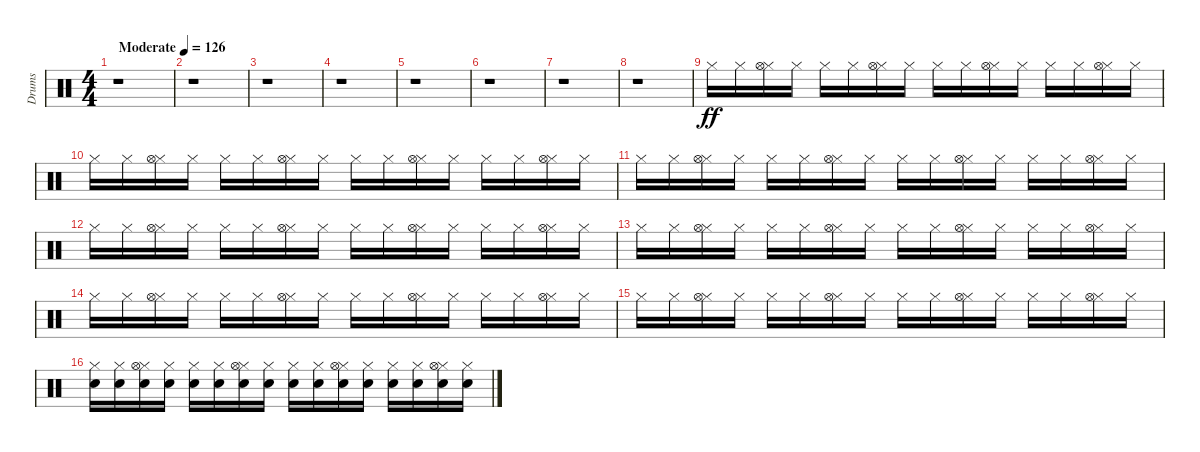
\track ("Drums" "Drums") {instrument percussion}
\staff {score}
\articulation defaults
\ts (4 4)
\tempo (126 "Moderate")
\clef neutral
\ks c
r.1{dy ff} |
r.1 |
r.1 |
r.1 |
r.1 |
r.1 |
r.1 |
r.1 |
"Hi-Hat (closed)".16 "Hi-Hat (closed)".16 ("Hi-Hat (closed)" "Hi-Hat (open)").16 "Hi-Hat (closed)".16 "Hi-Hat (closed)".16 "Hi-Hat (closed)".16 ("Hi-Hat (closed)" "Hi-Hat (open)").16 "Hi-Hat (closed)".16 "Hi-Hat (closed)".16 "Hi-Hat (closed)".16 ("Hi-Hat (closed)" "Hi-Hat (open)").16 "Hi-Hat (closed)".16 "Hi-Hat (closed)".16 "Hi-Hat (closed)".16 ("Hi-Hat (closed)" "Hi-Hat (open)").16 "Hi-Hat (closed)".16 |
"Hi-Hat (closed)".16 "Hi-Hat (closed)".16 ("Hi-Hat (closed)" "Hi-Hat (open)").16 "Hi-Hat (closed)".16 "Hi-Hat (closed)".16 "Hi-Hat (closed)".16 ("Hi-Hat (closed)" "Hi-Hat (open)").16 "Hi-Hat (closed)".16 "Hi-Hat (closed)".16 "Hi-Hat (closed)".16 ("Hi-Hat (closed)" "Hi-Hat (open)").16 "Hi-Hat (closed)".16 "Hi-Hat (closed)".16 "Hi-Hat (closed)".16 ("Hi-Hat (closed)" "Hi-Hat (open)").16 "Hi-Hat (closed)".16 |
"Hi-Hat (closed)".16 "Hi-Hat (closed)".16 ("Hi-Hat (closed)" "Hi-Hat (open)").16 "Hi-Hat (closed)".16 "Hi-Hat (closed)".16 "Hi-Hat (closed)".16 ("Hi-Hat (closed)" "Hi-Hat (open)").16 "Hi-Hat (closed)".16 "Hi-Hat (closed)".16 "Hi-Hat (closed)".16 ("Hi-Hat (closed)" "Hi-Hat (open)").16 "Hi-Hat (closed)".16 "Hi-Hat (closed)".16 "Hi-Hat (closed)".16 ("Hi-Hat (closed)" "Hi-Hat (open)").16 "Hi-Hat (closed)".16 |
"Hi-Hat (closed)".16 "Hi-Hat (closed)".16 ("Hi-Hat (closed)" "Hi-Hat (open)").16 "Hi-Hat (closed)".16 "Hi-Hat (closed)".16 "Hi-Hat (closed)".16 ("Hi-Hat (closed)" "Hi-Hat (open)").16 "Hi-Hat (closed)".16 "Hi-Hat (closed)".16 "Hi-Hat (closed)".16 ("Hi-Hat (closed)" "Hi-Hat (open)").16 "Hi-Hat (closed)".16 "Hi-Hat (closed)".16 "Hi-Hat (closed)".16 ("Hi-Hat (closed)" "Hi-Hat (open)").16 "Hi-Hat (closed)".16 |
"Hi-Hat (closed)".16 "Hi-Hat (closed)".16 ("Hi-Hat (closed)" "Hi-Hat (open)").16 "Hi-Hat (closed)".16 "Hi-Hat (closed)".16 "Hi-Hat (closed)".16 ("Hi-Hat (closed)" "Hi-Hat (open)").16 "Hi-Hat (closed)".16 "Hi-Hat (closed)".16 "Hi-Hat (closed)".16 ("Hi-Hat (closed)" "Hi-Hat (open)").16 "Hi-Hat (closed)".16 "Hi-Hat (closed)".16 "Hi-Hat (closed)".16 ("Hi-Hat (closed)" "Hi-Hat (open)").16 "Hi-Hat (closed)".16 |
"Hi-Hat (closed)".16 "Hi-Hat (closed)".16 ("Hi-Hat (closed)" "Hi-Hat (open)").16 "Hi-Hat (closed)".16 "Hi-Hat (closed)".16 "Hi-Hat (closed)".16 ("Hi-Hat (closed)" "Hi-Hat (open)").16 "Hi-Hat (closed)".16 "Hi-Hat (closed)".16 "Hi-Hat (closed)".16 ("Hi-Hat (closed)" "Hi-Hat (open)").16 "Hi-Hat (closed)".16 "Hi-Hat (closed)".16 "Hi-Hat (closed)".16 ("Hi-Hat (closed)" "Hi-Hat (open)").16 "Hi-Hat (closed)".16 |
"Hi-Hat (closed)".16 "Hi-Hat (closed)".16 ("Hi-Hat (closed)" "Hi-Hat (open)").16 "Hi-Hat (closed)".16 "Hi-Hat (closed)".16 "Hi-Hat (closed)".16 ("Hi-Hat (closed)" "Hi-Hat (open)").16 "Hi-Hat (closed)".16 "Hi-Hat (closed)".16 "Hi-Hat (closed)".16 ("Hi-Hat (closed)" "Hi-Hat (open)").16 "Hi-Hat (closed)".16 "Hi-Hat (closed)".16 "Hi-Hat (closed)".16 ("Hi-Hat (closed)" "Hi-Hat (open)").16 "Hi-Hat (closed)".16 |
("Electric Snare (hit)" "Hi-Hat (closed)").16 ("Electric Snare (hit)" "Hi-Hat (closed)").16 ("Electric Snare (hit)" "Hi-Hat (closed)" "Hi-Hat (open)").16 ("Electric Snare (hit)" "Hi-Hat (closed)").16 ("Electric Snare (hit)" "Hi-Hat (closed)").16 ("Electric Snare (hit)" "Hi-Hat (closed)").16 ("Electric Snare (hit)" "Hi-Hat (closed)" "Hi-Hat (open)").16 ("Electric Snare (hit)" "Hi-Hat (closed)").16 ("Electric Snare (hit)" "Hi-Hat (closed)").16 ("Electric Snare (hit)" "Hi-Hat (closed)").16 ("Electric Snare (hit)" "Hi-Hat (closed)" "Hi-Hat (open)").16 ("Electric Snare (hit)" "Hi-Hat (closed)").16 ("Electric Snare (hit)" "Hi-Hat (closed)").16 ("Electric Snare (hit)" "Hi-Hat (closed)").16 ("Electric Snare (hit)" "Hi-Hat (closed)" "Hi-Hat (open)").16 ("Electric Snare (hit)" "Hi-Hat (closed)").16
